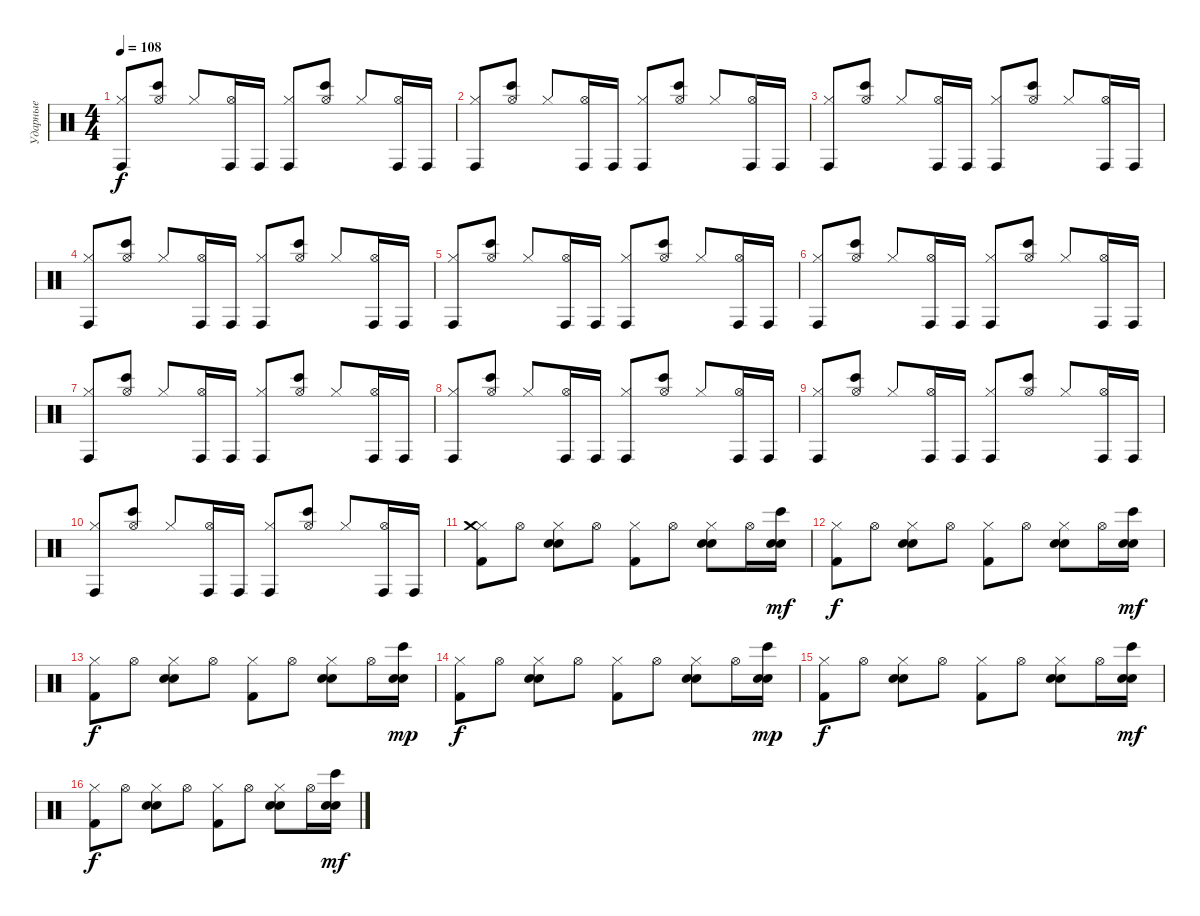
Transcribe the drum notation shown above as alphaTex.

\track ("Ударные" "Ударные") {instrument percussion}
\staff {score}
\articulation defaults
\ts (4 4)
\tempo 108
\clef neutral
\ks c
("Hi-Hat (closed)" "Conga high (hit)").8{dy f} ("Hi-Hat (open)" "Bongo High (hit)").8 "Hi-Hat (closed)".8 ("Hi-Hat (open)" "Conga high (hit)").16 "Conga high (hit)".16 ("Conga high (hit)" "Hi-Hat (closed)").8 ("Bongo High (hit)" "Hi-Hat (open)").8 "Hi-Hat (closed)".8 ("Conga high (hit)" "Hi-Hat (open)").16 "Conga high (hit)".16 |
("Hi-Hat (closed)" "Conga high (hit)").8 ("Hi-Hat (open)" "Bongo High (hit)").8 "Hi-Hat (closed)".8 ("Hi-Hat (open)" "Conga high (hit)").16 "Conga high (hit)".16 ("Conga high (hit)" "Hi-Hat (closed)").8 ("Bongo High (hit)" "Hi-Hat (open)").8 "Hi-Hat (closed)".8 ("Conga high (hit)" "Hi-Hat (open)").16 "Conga high (hit)".16 |
("Hi-Hat (closed)" "Conga high (hit)").8 ("Hi-Hat (open)" "Bongo High (hit)").8 "Hi-Hat (closed)".8 ("Hi-Hat (open)" "Conga high (hit)").16 "Conga high (hit)".16 ("Conga high (hit)" "Hi-Hat (closed)").8 ("Bongo High (hit)" "Hi-Hat (open)").8 "Hi-Hat (closed)".8 ("Conga high (hit)" "Hi-Hat (open)").16 "Conga high (hit)".16 |
("Hi-Hat (closed)" "Conga high (hit)").8 ("Hi-Hat (open)" "Bongo High (hit)").8 "Hi-Hat (closed)".8 ("Hi-Hat (open)" "Conga high (hit)").16 "Conga high (hit)".16 ("Conga high (hit)" "Hi-Hat (closed)").8 ("Bongo High (hit)" "Hi-Hat (open)").8 "Hi-Hat (closed)".8 ("Conga high (hit)" "Hi-Hat (open)").16 "Conga high (hit)".16 |
("Hi-Hat (closed)" "Conga high (hit)").8 ("Hi-Hat (open)" "Bongo High (hit)").8 "Hi-Hat (closed)".8 ("Hi-Hat (open)" "Conga high (hit)").16 "Conga high (hit)".16 ("Conga high (hit)" "Hi-Hat (closed)").8 ("Bongo High (hit)" "Hi-Hat (open)").8 "Hi-Hat (closed)".8 ("Conga high (hit)" "Hi-Hat (open)").16 "Conga high (hit)".16 |
("Hi-Hat (closed)" "Conga high (hit)").8 ("Hi-Hat (open)" "Bongo High (hit)").8 "Hi-Hat (closed)".8 ("Hi-Hat (open)" "Conga high (hit)").16 "Conga high (hit)".16 ("Conga high (hit)" "Hi-Hat (closed)").8 ("Bongo High (hit)" "Hi-Hat (open)").8 "Hi-Hat (closed)".8 ("Conga high (hit)" "Hi-Hat (open)").16 "Conga high (hit)".16 |
("Hi-Hat (closed)" "Conga high (hit)").8 ("Hi-Hat (open)" "Bongo High (hit)").8 "Hi-Hat (closed)".8 ("Hi-Hat (open)" "Conga high (hit)").16 "Conga high (hit)".16 ("Conga high (hit)" "Hi-Hat (closed)").8 ("Bongo High (hit)" "Hi-Hat (open)").8 "Hi-Hat (closed)".8 ("Conga high (hit)" "Hi-Hat (open)").16 "Conga high (hit)".16 |
("Hi-Hat (closed)" "Conga high (hit)").8 ("Hi-Hat (open)" "Bongo High (hit)").8 "Hi-Hat (closed)".8 ("Hi-Hat (open)" "Conga high (hit)").16 "Conga high (hit)".16 ("Conga high (hit)" "Hi-Hat (closed)").8 ("Bongo High (hit)" "Hi-Hat (open)").8 "Hi-Hat (closed)".8 ("Conga high (hit)" "Hi-Hat (open)").16 "Conga high (hit)".16 |
("Hi-Hat (closed)" "Conga high (hit)").8 ("Hi-Hat (open)" "Bongo High (hit)").8 "Hi-Hat (closed)".8 ("Hi-Hat (open)" "Conga high (hit)").16 "Conga high (hit)".16 ("Conga high (hit)" "Hi-Hat (closed)").8 ("Bongo High (hit)" "Hi-Hat (open)").8 "Hi-Hat (closed)".8 ("Conga high (hit)" "Hi-Hat (open)").16 "Conga high (hit)".16 |
("Hi-Hat (closed)" "Conga high (hit)").8 ("Hi-Hat (open)" "Bongo High (hit)").8 "Hi-Hat (closed)".8 ("Hi-Hat (open)" "Conga high (hit)").16 "Conga high (hit)".16 ("Conga high (hit)" "Hi-Hat (closed)").8 ("Bongo High (hit)" "Hi-Hat (open)").8 "Hi-Hat (closed)".8 ("Conga high (hit)" "Hi-Hat (open)").16 "Conga high (hit)".16 |
("Hi-Hat (closed)" "Kick (hit) 2" "Crash medium (hit)").8 "Hi-Hat (open)".8 ("Hi-Hat (closed)" "Electric Snare (hit)" "Hand Clap (hit)").8 "Hi-Hat (open)".8 ("Hi-Hat (closed)" "Kick (hit) 2").8 "Hi-Hat (open)".8 ("Hi-Hat (closed)" "Electric Snare (hit)" "Hand Clap (hit)").8 "Hi-Hat (open)".16 ("Bongo High (hit)" "Electric Snare (hit)" "Hand Clap (hit)").16{dy mf} |
("Hi-Hat (closed)" "Kick (hit) 2").8{dy f} "Hi-Hat (open)".8 ("Hi-Hat (closed)" "Electric Snare (hit)" "Hand Clap (hit)").8 "Hi-Hat (open)".8 ("Hi-Hat (closed)" "Kick (hit) 2").8 "Hi-Hat (open)".8 ("Hi-Hat (closed)" "Electric Snare (hit)" "Hand Clap (hit)").8 "Hi-Hat (open)".16 ("Bongo High (hit)" "Electric Snare (hit)" "Hand Clap (hit)").16{dy mf} |
("Hi-Hat (closed)" "Kick (hit) 2").8{dy f} "Hi-Hat (open)".8 ("Hi-Hat (closed)" "Electric Snare (hit)" "Hand Clap (hit)").8 "Hi-Hat (open)".8 ("Hi-Hat (closed)" "Kick (hit) 2").8 "Hi-Hat (open)".8 ("Hi-Hat (closed)" "Electric Snare (hit)" "Hand Clap (hit)").8 "Hi-Hat (open)".16 ("Bongo High (hit)" "Electric Snare (hit)" "Hand Clap (hit)").16{dy mp} |
("Hi-Hat (closed)" "Kick (hit) 2").8{dy f} "Hi-Hat (open)".8 ("Hi-Hat (closed)" "Electric Snare (hit)" "Hand Clap (hit)").8 "Hi-Hat (open)".8 ("Hi-Hat (closed)" "Kick (hit) 2").8 "Hi-Hat (open)".8 ("Hi-Hat (closed)" "Electric Snare (hit)" "Hand Clap (hit)").8 "Hi-Hat (open)".16 ("Bongo High (hit)" "Electric Snare (hit)" "Hand Clap (hit)").16{dy mp} |
("Hi-Hat (closed)" "Kick (hit) 2").8{dy f} "Hi-Hat (open)".8 ("Hi-Hat (closed)" "Electric Snare (hit)" "Hand Clap (hit)").8 "Hi-Hat (open)".8 ("Hi-Hat (closed)" "Kick (hit) 2").8 "Hi-Hat (open)".8 ("Hi-Hat (closed)" "Electric Snare (hit)" "Hand Clap (hit)").8 "Hi-Hat (open)".16 ("Bongo High (hit)" "Electric Snare (hit)" "Hand Clap (hit)").16{dy mf} |
("Hi-Hat (closed)" "Kick (hit) 2").8{dy f} "Hi-Hat (open)".8 ("Hi-Hat (closed)" "Electric Snare (hit)" "Hand Clap (hit)").8 "Hi-Hat (open)".8 ("Hi-Hat (closed)" "Kick (hit) 2").8 "Hi-Hat (open)".8 ("Hi-Hat (closed)" "Electric Snare (hit)" "Hand Clap (hit)").8 "Hi-Hat (open)".16 ("Bongo High (hit)" "Electric Snare (hit)" "Hand Clap (hit)").16{dy mf}
